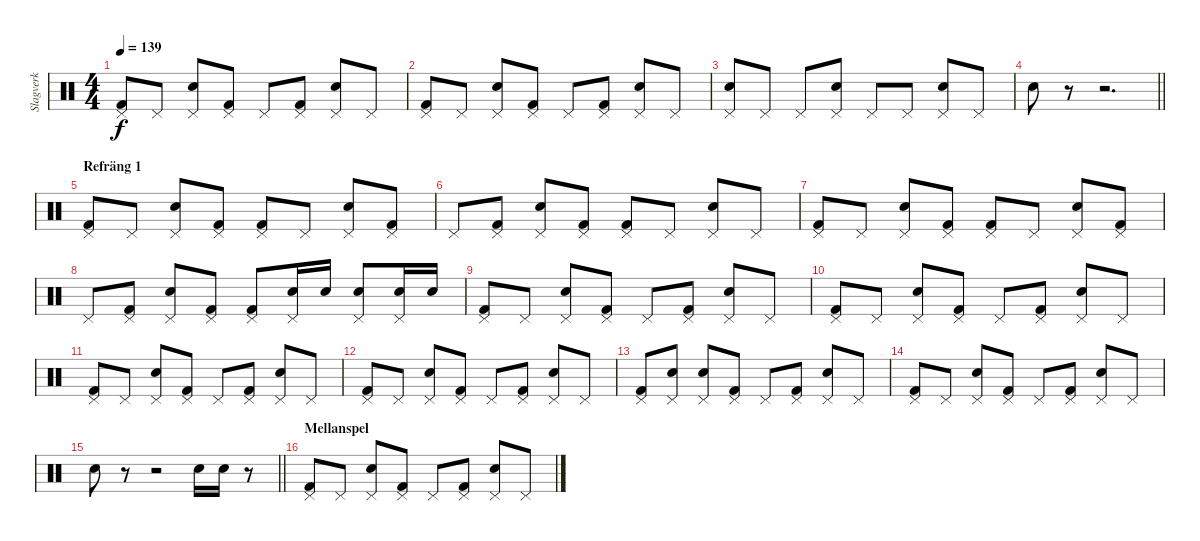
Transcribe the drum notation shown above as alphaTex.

\track ("Slagverk" "Slagverk") {instrument percussion}
\staff {score}
\articulation defaults
\ts (4 4)
\tempo 139
\clef neutral
\ks c
("Pedal Hi-Hat (hit)" "Kick (hit) 2").8{dy f} "Pedal Hi-Hat (hit)".8 ("Pedal Hi-Hat (hit)" "Snare (hit) 2").8 ("Pedal Hi-Hat (hit)" "Kick (hit) 2").8 "Pedal Hi-Hat (hit)".8 ("Pedal Hi-Hat (hit)" "Kick (hit) 2").8 ("Pedal Hi-Hat (hit)" "Snare (hit) 2").8 "Pedal Hi-Hat (hit)".8 |
("Pedal Hi-Hat (hit)" "Kick (hit) 2").8 "Pedal Hi-Hat (hit)".8 ("Pedal Hi-Hat (hit)" "Snare (hit) 2").8 ("Pedal Hi-Hat (hit)" "Kick (hit) 2").8 "Pedal Hi-Hat (hit)".8 ("Pedal Hi-Hat (hit)" "Kick (hit) 2").8 ("Pedal Hi-Hat (hit)" "Snare (hit) 2").8 "Pedal Hi-Hat (hit)".8 |
("Pedal Hi-Hat (hit)" "Snare (hit) 2").8 "Pedal Hi-Hat (hit)".8 "Pedal Hi-Hat (hit)".8 ("Pedal Hi-Hat (hit)" "Snare (hit) 2").8 "Pedal Hi-Hat (hit)".8 "Pedal Hi-Hat (hit)".8 ("Pedal Hi-Hat (hit)" "Snare (hit) 2").8 "Pedal Hi-Hat (hit)".8 |
\barLineRight lightlight "Snare (hit) 2".8
r.8 r.2{d} |
\section ("" "Refräng 1")
("Pedal Hi-Hat (hit)" "Kick (hit) 2").8 "Pedal Hi-Hat (hit)".8 ("Pedal Hi-Hat (hit)" "Snare (hit) 2").8 ("Pedal Hi-Hat (hit)" "Kick (hit) 2").8 ("Pedal Hi-Hat (hit)" "Kick (hit) 2").8 "Pedal Hi-Hat (hit)".8 ("Pedal Hi-Hat (hit)" "Snare (hit) 2").8 ("Pedal Hi-Hat (hit)" "Kick (hit) 2").8 |
"Pedal Hi-Hat (hit)".8 ("Pedal Hi-Hat (hit)" "Kick (hit) 2").8 ("Pedal Hi-Hat (hit)" "Snare (hit) 2").8 ("Pedal Hi-Hat (hit)" "Kick (hit) 2").8 ("Pedal Hi-Hat (hit)" "Kick (hit) 2").8 "Pedal Hi-Hat (hit)".8 ("Pedal Hi-Hat (hit)" "Snare (hit) 2").8 "Pedal Hi-Hat (hit)".8 |
("Pedal Hi-Hat (hit)" "Kick (hit) 2").8 "Pedal Hi-Hat (hit)".8 ("Pedal Hi-Hat (hit)" "Snare (hit) 2").8 ("Pedal Hi-Hat (hit)" "Kick (hit) 2").8 ("Pedal Hi-Hat (hit)" "Kick (hit) 2").8 "Pedal Hi-Hat (hit)".8 ("Pedal Hi-Hat (hit)" "Snare (hit) 2").8 ("Pedal Hi-Hat (hit)" "Kick (hit) 2").8 |
"Pedal Hi-Hat (hit)".8 ("Pedal Hi-Hat (hit)" "Kick (hit) 2").8 ("Pedal Hi-Hat (hit)" "Snare (hit) 2").8 ("Pedal Hi-Hat (hit)" "Kick (hit) 2").8 ("Pedal Hi-Hat (hit)" "Kick (hit) 2").8 ("Pedal Hi-Hat (hit)" "Snare (hit) 2").16 "Snare (hit) 2".16 ("Pedal Hi-Hat (hit)" "Snare (hit) 2").8 ("Pedal Hi-Hat (hit)" "Snare (hit) 2").16 "Snare (hit) 2".16 |
("Pedal Hi-Hat (hit)" "Kick (hit) 2").8 "Pedal Hi-Hat (hit)".8 ("Pedal Hi-Hat (hit)" "Snare (hit) 2").8 ("Pedal Hi-Hat (hit)" "Kick (hit) 2").8 "Pedal Hi-Hat (hit)".8 ("Pedal Hi-Hat (hit)" "Kick (hit) 2").8 ("Pedal Hi-Hat (hit)" "Snare (hit) 2").8 "Pedal Hi-Hat (hit)".8 |
("Pedal Hi-Hat (hit)" "Kick (hit) 2").8 "Pedal Hi-Hat (hit)".8 ("Pedal Hi-Hat (hit)" "Snare (hit) 2").8 ("Pedal Hi-Hat (hit)" "Kick (hit) 2").8 "Pedal Hi-Hat (hit)".8 ("Pedal Hi-Hat (hit)" "Kick (hit) 2").8 ("Pedal Hi-Hat (hit)" "Snare (hit) 2").8 "Pedal Hi-Hat (hit)".8 |
("Pedal Hi-Hat (hit)" "Kick (hit) 2").8 "Pedal Hi-Hat (hit)".8 ("Pedal Hi-Hat (hit)" "Snare (hit) 2").8 ("Pedal Hi-Hat (hit)" "Kick (hit) 2").8 "Pedal Hi-Hat (hit)".8 ("Pedal Hi-Hat (hit)" "Kick (hit) 2").8 ("Pedal Hi-Hat (hit)" "Snare (hit) 2").8 "Pedal Hi-Hat (hit)".8 |
("Pedal Hi-Hat (hit)" "Kick (hit) 2").8 "Pedal Hi-Hat (hit)".8 ("Pedal Hi-Hat (hit)" "Snare (hit) 2").8 ("Pedal Hi-Hat (hit)" "Kick (hit) 2").8 "Pedal Hi-Hat (hit)".8 ("Pedal Hi-Hat (hit)" "Kick (hit) 2").8 ("Pedal Hi-Hat (hit)" "Snare (hit) 2").8 "Pedal Hi-Hat (hit)".8 |
("Pedal Hi-Hat (hit)" "Kick (hit) 2").8 ("Pedal Hi-Hat (hit)" "Snare (hit) 2").8 ("Pedal Hi-Hat (hit)" "Snare (hit) 2").8 ("Pedal Hi-Hat (hit)" "Kick (hit) 2").8 "Pedal Hi-Hat (hit)".8 ("Pedal Hi-Hat (hit)" "Kick (hit) 2").8 ("Pedal Hi-Hat (hit)" "Snare (hit) 2").8 "Pedal Hi-Hat (hit)".8 |
("Pedal Hi-Hat (hit)" "Kick (hit) 2").8 "Pedal Hi-Hat (hit)".8 ("Pedal Hi-Hat (hit)" "Snare (hit) 2").8 ("Pedal Hi-Hat (hit)" "Kick (hit) 2").8 "Pedal Hi-Hat (hit)".8 ("Pedal Hi-Hat (hit)" "Kick (hit) 2").8 ("Pedal Hi-Hat (hit)" "Snare (hit) 2").8 "Pedal Hi-Hat (hit)".8 |
\barLineRight lightlight "Snare (hit) 2".8
r.8 r.2 "Snare (hit) 2".16 "Snare (hit) 2".16 r.8 |
\section ("" "Mellanspel")
("Pedal Hi-Hat (hit)" "Kick (hit) 2").8 "Pedal Hi-Hat (hit)".8 ("Pedal Hi-Hat (hit)" "Snare (hit) 2").8 ("Pedal Hi-Hat (hit)" "Kick (hit) 2").8 "Pedal Hi-Hat (hit)".8 ("Pedal Hi-Hat (hit)" "Kick (hit) 2").8 ("Pedal Hi-Hat (hit)" "Snare (hit) 2").8 "Pedal Hi-Hat (hit)".8
